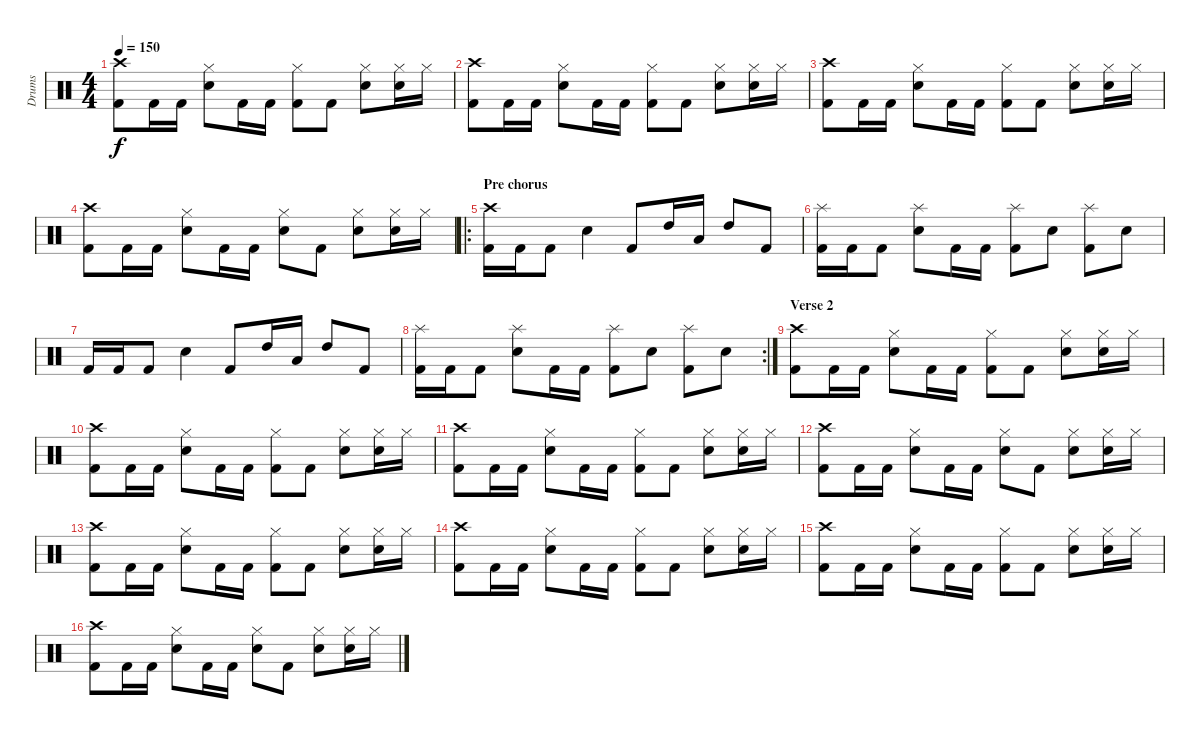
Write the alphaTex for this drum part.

\track ("Drums" "Drums") {instrument percussion}
\staff {score}
\articulation defaults
\ts (4 4)
\tempo 150
\clef neutral
\ks c
("Crash high (hit)" "Kick (hit) 2").8{dy f} "Kick (hit) 2".16 "Kick (hit) 2".16 ("Hi-Hat (closed)" "Electric Snare (hit)").8 "Kick (hit) 2".16 "Kick (hit) 2".16 ("Hi-Hat (closed)" "Kick (hit) 2").8 "Kick (hit) 2".8 ("Hi-Hat (closed)" "Electric Snare (hit)").8 ("Hi-Hat (closed)" "Electric Snare (hit)").16 "Hi-Hat (closed)".16 |
("Crash high (hit)" "Kick (hit) 2").8 "Kick (hit) 2".16 "Kick (hit) 2".16 ("Hi-Hat (closed)" "Electric Snare (hit)").8 "Kick (hit) 2".16 "Kick (hit) 2".16 ("Hi-Hat (closed)" "Kick (hit) 2").8 "Kick (hit) 2".8 ("Hi-Hat (closed)" "Electric Snare (hit)").8 ("Hi-Hat (closed)" "Electric Snare (hit)").16 "Hi-Hat (closed)".16 |
("Crash high (hit)" "Kick (hit) 2").8 "Kick (hit) 2".16 "Kick (hit) 2".16 ("Hi-Hat (closed)" "Electric Snare (hit)").8 "Kick (hit) 2".16 "Kick (hit) 2".16 ("Hi-Hat (closed)" "Kick (hit) 2").8 "Kick (hit) 2".8 ("Hi-Hat (closed)" "Electric Snare (hit)").8 ("Hi-Hat (closed)" "Electric Snare (hit)").16 "Hi-Hat (closed)".16 |
("Crash high (hit)" "Kick (hit) 2").8 "Kick (hit) 2".16 "Kick (hit) 2".16 ("Hi-Hat (closed)" "Electric Snare (hit)").8 "Kick (hit) 2".16 "Kick (hit) 2".16 ("Hi-Hat (closed)" "Electric Snare (hit)").8 "Kick (hit) 2".8 ("Hi-Hat (closed)" "Electric Snare (hit)").8 ("Hi-Hat (closed)" "Electric Snare (hit)").16 "Hi-Hat (closed)".16 |
\ro
\section ("" "Pre chorus")
("Crash high (hit)" "Kick (hit) 2").16 "Kick (hit) 2".16 "Kick (hit) 2".8 "Electric Snare (hit)".4 "Kick (hit) 2".8 "High Tom (hit)".16 "Low Tom (hit)".16 "High Tom (hit)".8 "Kick (hit) 2".8 |
("Splash (hit)" "Kick (hit) 2").16 "Kick (hit) 2".16 "Kick (hit) 2".8 ("Splash (hit)" "Electric Snare (hit)").8 "Kick (hit) 2".16 "Kick (hit) 2".16 ("Splash (hit)" "Kick (hit) 2").8 "Electric Snare (hit)".8 ("Splash (hit)" "Kick (hit) 2").8 "Electric Snare (hit)".8 |
"Kick (hit) 2".16 "Kick (hit) 2".16 "Kick (hit) 2".8 "Electric Snare (hit)".4 "Kick (hit) 2".8 "High Tom (hit)".16 "Low Tom (hit)".16 "High Tom (hit)".8 "Kick (hit) 2".8 |
\rc 2
("Splash (hit)" "Kick (hit) 2").16 "Kick (hit) 2".16 "Kick (hit) 2".8 ("Splash (hit)" "Electric Snare (hit)").8 "Kick (hit) 2".16 "Kick (hit) 2".16 ("Splash (hit)" "Kick (hit) 2").8 "Electric Snare (hit)".8 ("Splash (hit)" "Kick (hit) 2").8 "Electric Snare (hit)".8 |
\section ("" "Verse 2")
("Crash high (hit)" "Kick (hit) 2").8 "Kick (hit) 2".16 "Kick (hit) 2".16 ("Hi-Hat (closed)" "Electric Snare (hit)").8 "Kick (hit) 2".16 "Kick (hit) 2".16 ("Hi-Hat (closed)" "Kick (hit) 2").8 "Kick (hit) 2".8 ("Hi-Hat (closed)" "Electric Snare (hit)").8 ("Hi-Hat (closed)" "Electric Snare (hit)").16 "Hi-Hat (closed)".16 |
("Crash high (hit)" "Kick (hit) 2").8 "Kick (hit) 2".16 "Kick (hit) 2".16 ("Hi-Hat (closed)" "Electric Snare (hit)").8 "Kick (hit) 2".16 "Kick (hit) 2".16 ("Hi-Hat (closed)" "Kick (hit) 2").8 "Kick (hit) 2".8 ("Hi-Hat (closed)" "Electric Snare (hit)").8 ("Hi-Hat (closed)" "Electric Snare (hit)").16 "Hi-Hat (closed)".16 |
("Crash high (hit)" "Kick (hit) 2").8 "Kick (hit) 2".16 "Kick (hit) 2".16 ("Hi-Hat (closed)" "Electric Snare (hit)").8 "Kick (hit) 2".16 "Kick (hit) 2".16 ("Hi-Hat (closed)" "Kick (hit) 2").8 "Kick (hit) 2".8 ("Hi-Hat (closed)" "Electric Snare (hit)").8 ("Hi-Hat (closed)" "Electric Snare (hit)").16 "Hi-Hat (closed)".16 |
("Crash high (hit)" "Kick (hit) 2").8 "Kick (hit) 2".16 "Kick (hit) 2".16 ("Hi-Hat (closed)" "Electric Snare (hit)").8 "Kick (hit) 2".16 "Kick (hit) 2".16 ("Hi-Hat (closed)" "Electric Snare (hit)").8 "Kick (hit) 2".8 ("Hi-Hat (closed)" "Electric Snare (hit)").8 ("Hi-Hat (closed)" "Electric Snare (hit)").16 "Hi-Hat (closed)".16 |
("Crash high (hit)" "Kick (hit) 2").8 "Kick (hit) 2".16 "Kick (hit) 2".16 ("Hi-Hat (closed)" "Electric Snare (hit)").8 "Kick (hit) 2".16 "Kick (hit) 2".16 ("Hi-Hat (closed)" "Kick (hit) 2").8 "Kick (hit) 2".8 ("Hi-Hat (closed)" "Electric Snare (hit)").8 ("Hi-Hat (closed)" "Electric Snare (hit)").16 "Hi-Hat (closed)".16 |
("Crash high (hit)" "Kick (hit) 2").8 "Kick (hit) 2".16 "Kick (hit) 2".16 ("Hi-Hat (closed)" "Electric Snare (hit)").8 "Kick (hit) 2".16 "Kick (hit) 2".16 ("Hi-Hat (closed)" "Kick (hit) 2").8 "Kick (hit) 2".8 ("Hi-Hat (closed)" "Electric Snare (hit)").8 ("Hi-Hat (closed)" "Electric Snare (hit)").16 "Hi-Hat (closed)".16 |
("Crash high (hit)" "Kick (hit) 2").8 "Kick (hit) 2".16 "Kick (hit) 2".16 ("Hi-Hat (closed)" "Electric Snare (hit)").8 "Kick (hit) 2".16 "Kick (hit) 2".16 ("Hi-Hat (closed)" "Kick (hit) 2").8 "Kick (hit) 2".8 ("Hi-Hat (closed)" "Electric Snare (hit)").8 ("Hi-Hat (closed)" "Electric Snare (hit)").16 "Hi-Hat (closed)".16 |
("Crash high (hit)" "Kick (hit) 2").8 "Kick (hit) 2".16 "Kick (hit) 2".16 ("Hi-Hat (closed)" "Electric Snare (hit)").8 "Kick (hit) 2".16 "Kick (hit) 2".16 ("Hi-Hat (closed)" "Electric Snare (hit)").8 "Kick (hit) 2".8 ("Hi-Hat (closed)" "Electric Snare (hit)").8 ("Hi-Hat (closed)" "Electric Snare (hit)").16 "Hi-Hat (closed)".16
